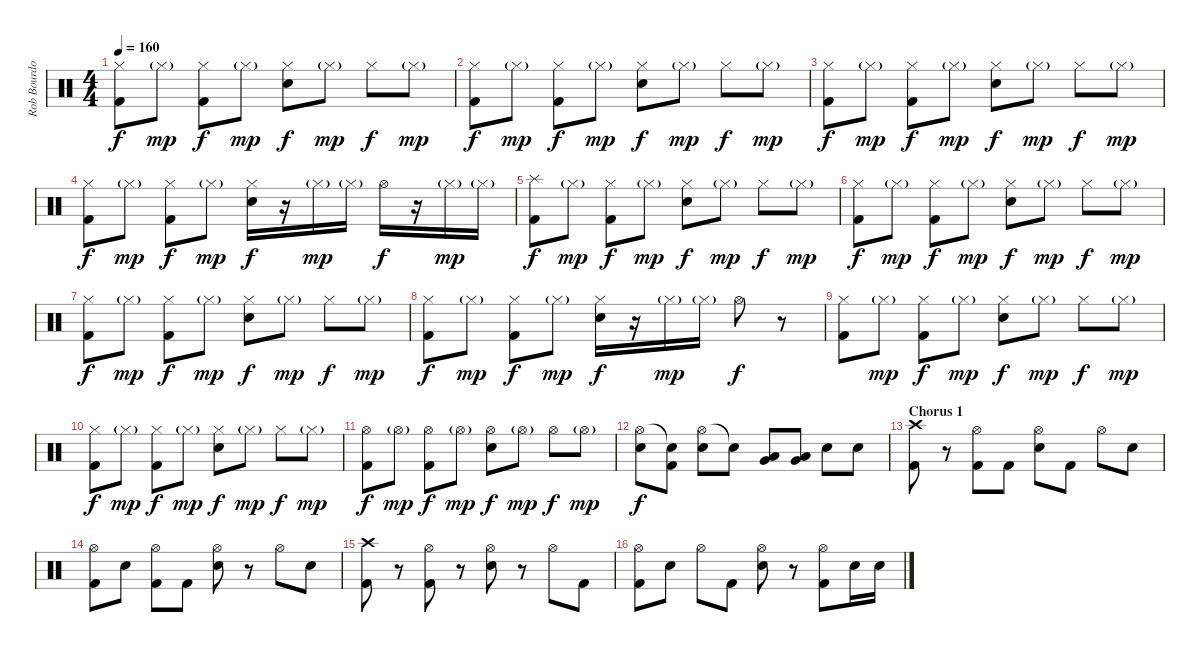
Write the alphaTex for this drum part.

\track ("Rob Bourdon (Drums)" "Rob Bourdo") {instrument percussion}
\staff {score}
\articulation defaults
\ts (4 4)
\tempo 160
\clef neutral
\ks c
("Hi-Hat (closed)" "Kick (hit) 2").8{dy f} "Hi-Hat (closed)"{g}.8{dy mp} ("Hi-Hat (closed)" "Kick (hit) 2").8{dy f} "Hi-Hat (closed)"{g}.8{dy mp} ("Hi-Hat (closed)" "Electric Snare (hit)").8{dy f} "Hi-Hat (closed)"{g}.8{dy mp} "Hi-Hat (closed)".8{dy f} "Hi-Hat (closed)"{g}.8{dy mp} |
("Hi-Hat (closed)" "Kick (hit) 2").8{dy f} "Hi-Hat (closed)"{g}.8{dy mp} ("Hi-Hat (closed)" "Kick (hit) 2").8{dy f} "Hi-Hat (closed)"{g}.8{dy mp} ("Hi-Hat (closed)" "Electric Snare (hit)").8{dy f} "Hi-Hat (closed)"{g}.8{dy mp} "Hi-Hat (closed)".8{dy f} "Hi-Hat (closed)"{g}.8{dy mp} |
("Hi-Hat (closed)" "Kick (hit) 2").8{dy f} "Hi-Hat (closed)"{g}.8{dy mp} ("Hi-Hat (closed)" "Kick (hit) 2").8{dy f} "Hi-Hat (closed)"{g}.8{dy mp} ("Hi-Hat (closed)" "Electric Snare (hit)").8{dy f} "Hi-Hat (closed)"{g}.8{dy mp} "Hi-Hat (closed)".8{dy f} "Hi-Hat (closed)"{g}.8{dy mp} |
("Hi-Hat (closed)" "Kick (hit) 2").8{dy f} "Hi-Hat (closed)"{g}.8{dy mp} ("Hi-Hat (closed)" "Kick (hit) 2").8{dy f} "Hi-Hat (closed)"{g}.8{dy mp} ("Hi-Hat (closed)" "Electric Snare (hit)").16{dy f} r.16 "Hi-Hat (closed)"{g}.16{dy mp} "Hi-Hat (closed)"{g}.16 "Hi-Hat (open)".16{dy f} r.16 "Hi-Hat (closed)"{g}.16{dy mp} "Hi-Hat (closed)"{g}.16 |
("Splash (hit)" "Kick (hit) 2").8{dy f} "Hi-Hat (closed)"{g}.8{dy mp} ("Hi-Hat (closed)" "Kick (hit) 2").8{dy f} "Hi-Hat (closed)"{g}.8{dy mp} ("Hi-Hat (closed)" "Electric Snare (hit)").8{dy f} "Hi-Hat (closed)"{g}.8{dy mp} "Hi-Hat (closed)".8{dy f} "Hi-Hat (closed)"{g}.8{dy mp} |
("Hi-Hat (closed)" "Kick (hit) 2").8{dy f} "Hi-Hat (closed)"{g}.8{dy mp} ("Hi-Hat (closed)" "Kick (hit) 2").8{dy f} "Hi-Hat (closed)"{g}.8{dy mp} ("Hi-Hat (closed)" "Electric Snare (hit)").8{dy f} "Hi-Hat (closed)"{g}.8{dy mp} "Hi-Hat (closed)".8{dy f} "Hi-Hat (closed)"{g}.8{dy mp} |
("Hi-Hat (closed)" "Kick (hit) 2").8{dy f} "Hi-Hat (closed)"{g}.8{dy mp} ("Hi-Hat (closed)" "Kick (hit) 2").8{dy f} "Hi-Hat (closed)"{g}.8{dy mp} ("Hi-Hat (closed)" "Electric Snare (hit)").8{dy f} "Hi-Hat (closed)"{g}.8{dy mp} "Hi-Hat (closed)".8{dy f} "Hi-Hat (closed)"{g}.8{dy mp} |
("Hi-Hat (closed)" "Kick (hit) 2").8{dy f} "Hi-Hat (closed)"{g}.8{dy mp} ("Hi-Hat (closed)" "Kick (hit) 2").8{dy f} "Hi-Hat (closed)"{g}.8{dy mp} ("Hi-Hat (closed)" "Electric Snare (hit)").16{dy f} r.16 "Hi-Hat (closed)"{g}.16{dy mp} "Hi-Hat (closed)"{g}.16 "Hi-Hat (open)".8{dy f} r.8 |
("Hi-Hat (closed)" "Kick (hit) 2").8 "Hi-Hat (closed)"{g}.8{dy mp} ("Hi-Hat (closed)" "Kick (hit) 2").8{dy f} "Hi-Hat (closed)"{g}.8{dy mp} ("Hi-Hat (closed)" "Electric Snare (hit)").8{dy f} "Hi-Hat (closed)"{g}.8{dy mp} "Hi-Hat (closed)".8{dy f} "Hi-Hat (closed)"{g}.8{dy mp} |
("Hi-Hat (closed)" "Kick (hit) 2").8{dy f} "Hi-Hat (closed)"{g}.8{dy mp} ("Hi-Hat (closed)" "Kick (hit) 2").8{dy f} "Hi-Hat (closed)"{g}.8{dy mp} ("Hi-Hat (closed)" "Electric Snare (hit)").8{dy f} "Hi-Hat (closed)"{g}.8{dy mp} "Hi-Hat (closed)".8{dy f} "Hi-Hat (closed)"{g}.8{dy mp} |
("Hi-Hat (open)" "Kick (hit) 2").8{dy f} "Hi-Hat (open)"{g}.8{dy mp} ("Hi-Hat (open)" "Kick (hit) 2").8{dy f} "Hi-Hat (open)"{g}.8{dy mp} ("Hi-Hat (open)" "Electric Snare (hit)").8{dy f} "Hi-Hat (open)"{g}.8{dy mp} "Hi-Hat (open)".8{dy f} "Hi-Hat (open)"{g}.8{dy mp} |
("Hi-Hat (open)" "Electric Snare (hit)").8{dy f} ("Snare (hit)"{t} "Kick (hit) 2").8 ("Hi-Hat (open)" "Electric Snare (hit)").8 "Snare (hit)"{t}.8 ("Low Tom (hit)" "Very Low Tom (hit)").8 ("Low Tom (hit)" "Very Low Tom (hit)").8 "Electric Snare (hit)".8 "Electric Snare (hit)".8 |
\section ("" "Chorus 1")
("Crash high (hit)" "Kick (hit) 2").8 r.8 ("Hi-Hat (open)" "Kick (hit) 2").8 "Kick (hit) 2".8 ("Hi-Hat (open)" "Electric Snare (hit)").8 "Kick (hit) 2".8 "Hi-Hat (open)".8 "Electric Snare (hit)".8 |
("Hi-Hat (open)" "Kick (hit) 2").8 "Electric Snare (hit)".8 ("Hi-Hat (open)" "Kick (hit) 2").8 "Kick (hit) 2".8 ("Hi-Hat (open)" "Electric Snare (hit)").8 r.8 "Hi-Hat (open)".8 "Electric Snare (hit)".8 |
("Crash high (hit)" "Kick (hit) 2").8 r.8 ("Hi-Hat (open)" "Kick (hit) 2").8 r.8 ("Hi-Hat (open)" "Electric Snare (hit)").8 r.8 "Hi-Hat (open)".8 "Kick (hit) 2".8 |
("Hi-Hat (open)" "Kick (hit) 2").8 "Electric Snare (hit)".8 "Hi-Hat (open)".8 "Kick (hit) 2".8 ("Hi-Hat (open)" "Electric Snare (hit)").8 r.8 ("Hi-Hat (open)" "Kick (hit) 2").8 "Electric Snare (hit)".16 "Electric Snare (hit)".16
